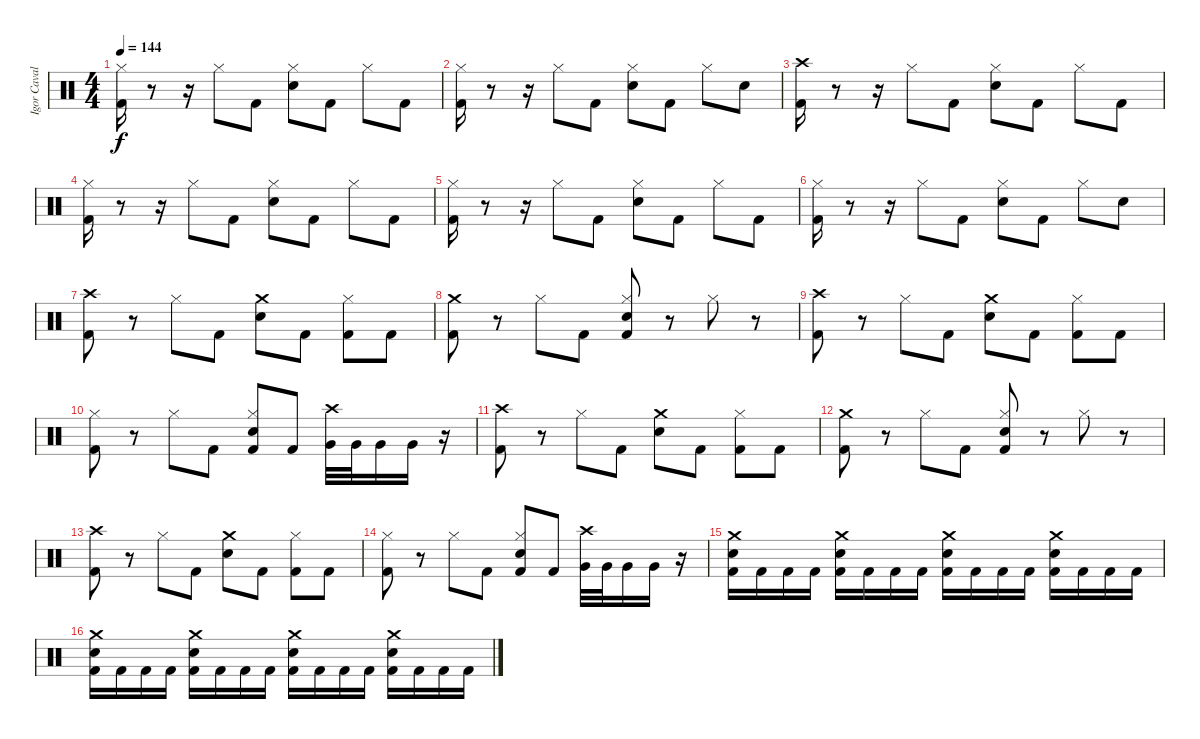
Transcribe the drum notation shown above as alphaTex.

\track ("Igor Cavalera" "Igor Caval") {instrument percussion}
\staff {score}
\articulation defaults
\ts (4 4)
\tempo 144
\clef neutral
\ks c
("Kick (hit) 2" "Hi-Hat (closed)").16{dy f} r.8 r.16 "Hi-Hat (closed)".8 "Kick (hit) 2".8 ("Snare (hit) 2" "Hi-Hat (closed)").8 "Kick (hit) 2".8 "Hi-Hat (closed)".8 "Kick (hit) 2".8 |
("Kick (hit) 2" "Hi-Hat (closed)").16 r.8 r.16 "Hi-Hat (closed)".8 "Kick (hit) 2".8 ("Snare (hit) 2" "Hi-Hat (closed)").8 "Kick (hit) 2".8 "Hi-Hat (closed)".8 "Snare (hit) 2".8 |
("Kick (hit) 2" "Crash high (hit)").16 r.8 r.16 "Hi-Hat (closed)".8 "Kick (hit) 2".8 ("Snare (hit) 2" "Hi-Hat (closed)").8 "Kick (hit) 2".8 "Hi-Hat (closed)".8 "Kick (hit) 2".8 |
("Kick (hit) 2" "Hi-Hat (closed)").16 r.8 r.16 "Hi-Hat (closed)".8 "Kick (hit) 2".8 ("Snare (hit) 2" "Hi-Hat (closed)").8 "Kick (hit) 2".8 "Hi-Hat (closed)".8 "Kick (hit) 2".8 |
("Kick (hit) 2" "Hi-Hat (closed)").16 r.8 r.16 "Hi-Hat (closed)".8 "Kick (hit) 2".8 ("Snare (hit) 2" "Hi-Hat (closed)").8 "Kick (hit) 2".8 "Hi-Hat (closed)".8 "Kick (hit) 2".8 |
("Kick (hit) 2" "Hi-Hat (closed)").16 r.8 r.16 "Hi-Hat (closed)".8 "Kick (hit) 2".8 ("Snare (hit) 2" "Hi-Hat (closed)").8 "Kick (hit) 2".8 "Hi-Hat (closed)".8 "Snare (hit) 2".8 |
("Kick (hit) 2" "Crash high (hit)").8 r.8 "Hi-Hat (closed)".8 "Kick (hit) 2".8 ("Snare (hit) 2" "Crash medium (hit)").8 "Kick (hit) 2".8 ("Hi-Hat (closed)" "Kick (hit) 2").8 "Kick (hit) 2".8 |
("Kick (hit) 2" "Crash medium (hit)").8 r.8 "Hi-Hat (closed)".8 "Kick (hit) 2".8 ("Kick (hit) 2" "Hi-Hat (closed)" "Snare (hit) 2").8 r.8 "Hi-Hat (closed)".8 r.8 |
("Kick (hit) 2" "Crash high (hit)").8 r.8 "Hi-Hat (closed)".8 "Kick (hit) 2".8 ("Snare (hit) 2" "Crash medium (hit)").8 "Kick (hit) 2".8 ("Hi-Hat (closed)" "Kick (hit) 2").8 "Kick (hit) 2".8 |
("Kick (hit) 2" "Hi-Hat (closed)").8 r.8 "Hi-Hat (closed)".8 "Kick (hit) 2".8 ("Kick (hit) 2" "Hi-Hat (closed)" "Snare (hit) 2").8 "Kick (hit) 2".8 ("Crash high (hit)" "Very Low Tom (hit)").32 "Very Low Tom (hit)".32 "Very Low Tom (hit)".16 "Very Low Tom (hit)".16 r.16 |
("Kick (hit) 2" "Crash high (hit)").8 r.8 "Hi-Hat (closed)".8 "Kick (hit) 2".8 ("Snare (hit) 2" "Crash medium (hit)").8 "Kick (hit) 2".8 ("Hi-Hat (closed)" "Kick (hit) 2").8 "Kick (hit) 2".8 |
("Kick (hit) 2" "Crash medium (hit)").8 r.8 "Hi-Hat (closed)".8 "Kick (hit) 2".8 ("Kick (hit) 2" "Hi-Hat (closed)" "Snare (hit) 2").8 r.8 "Hi-Hat (closed)".8 r.8 |
("Kick (hit) 2" "Crash high (hit)").8 r.8 "Hi-Hat (closed)".8 "Kick (hit) 2".8 ("Snare (hit) 2" "Crash medium (hit)").8 "Kick (hit) 2".8 ("Hi-Hat (closed)" "Kick (hit) 2").8 "Kick (hit) 2".8 |
("Kick (hit) 2" "Hi-Hat (closed)").8 r.8 "Hi-Hat (closed)".8 "Kick (hit) 2".8 ("Kick (hit) 2" "Hi-Hat (closed)" "Snare (hit) 2").8 "Kick (hit) 2".8 ("Crash high (hit)" "Very Low Tom (hit)").32 "Very Low Tom (hit)".32 "Very Low Tom (hit)".16 "Very Low Tom (hit)".16 r.16 |
("Kick (hit) 2" "Snare (hit) 2" "Crash medium (hit)").16 "Kick (hit) 2".16 "Kick (hit) 2".16 "Kick (hit) 2".16 ("Kick (hit) 2" "Snare (hit) 2" "Crash medium (hit)").16 "Kick (hit) 2".16 "Kick (hit) 2".16 "Kick (hit) 2".16 ("Kick (hit) 2" "Snare (hit) 2" "Crash medium (hit)").16 "Kick (hit) 2".16 "Kick (hit) 2".16 "Kick (hit) 2".16 ("Kick (hit) 2" "Snare (hit) 2" "Crash medium (hit)").16 "Kick (hit) 2".16 "Kick (hit) 2".16 "Kick (hit) 2".16 |
("Kick (hit) 2" "Snare (hit) 2" "Crash medium (hit)").16 "Kick (hit) 2".16 "Kick (hit) 2".16 "Kick (hit) 2".16 ("Kick (hit) 2" "Snare (hit) 2" "Crash medium (hit)").16 "Kick (hit) 2".16 "Kick (hit) 2".16 "Kick (hit) 2".16 ("Kick (hit) 2" "Snare (hit) 2" "Crash medium (hit)").16 "Kick (hit) 2".16 "Kick (hit) 2".16 "Kick (hit) 2".16 ("Kick (hit) 2" "Snare (hit) 2" "Crash medium (hit)").16 "Kick (hit) 2".16 "Kick (hit) 2".16 "Kick (hit) 2".16
